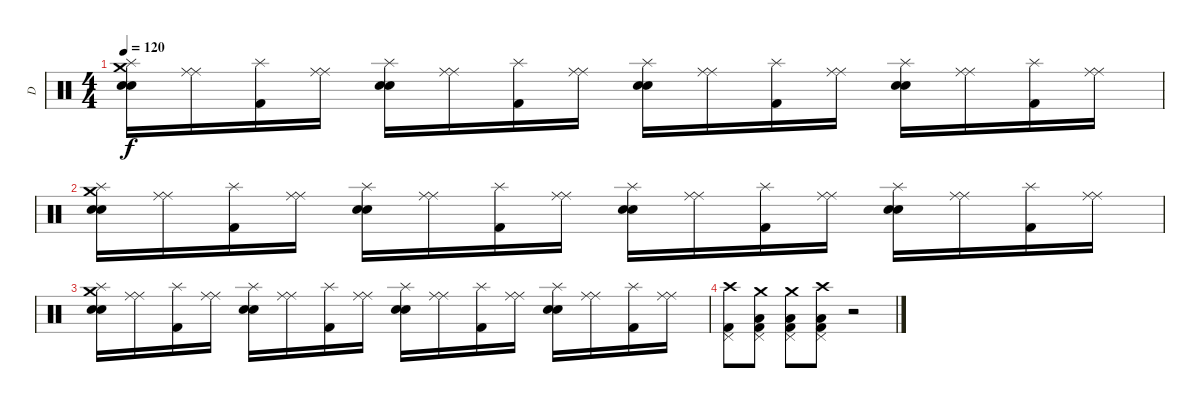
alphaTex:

\track ("D" "D") {instrument percussion}
\staff {score}
\articulation defaults
\ts (4 4)
\tempo 120
\clef neutral
\ks c
("Crash medium (hit)" "Electric Snare (hit)" "Electric Snare (hit)" "Splash (hit)").16{dy f} ("Ride (middle)" "Ride (middle)").16 ("Kick (hit) 2" "Splash (hit)").16 ("Ride (middle)" "Ride (middle)").16 ("Electric Snare (hit)" "Electric Snare (hit)" "Splash (hit)").16 ("Ride (middle)" "Ride (middle)").16 ("Kick (hit) 2" "Splash (hit)").16 ("Ride (middle)" "Ride (middle)").16 ("Electric Snare (hit)" "Electric Snare (hit)" "Splash (hit)").16 ("Ride (middle)" "Ride (middle)").16 ("Kick (hit) 2" "Splash (hit)").16 ("Ride (middle)" "Ride (middle)").16 ("Electric Snare (hit)" "Electric Snare (hit)" "Splash (hit)").16 ("Ride (middle)" "Ride (middle)").16 ("Kick (hit) 2" "Splash (hit)").16 ("Ride (middle)" "Ride (middle)").16 |
("Crash medium (hit)" "Electric Snare (hit)" "Electric Snare (hit)" "Splash (hit)").16 ("Ride (middle)" "Ride (middle)").16 ("Kick (hit) 2" "Splash (hit)").16 ("Ride (middle)" "Ride (middle)").16 ("Electric Snare (hit)" "Electric Snare (hit)" "Splash (hit)").16 ("Ride (middle)" "Ride (middle)").16 ("Kick (hit) 2" "Splash (hit)").16 ("Ride (middle)" "Ride (middle)").16 ("Electric Snare (hit)" "Electric Snare (hit)" "Splash (hit)").16 ("Ride (middle)" "Ride (middle)").16 ("Kick (hit) 2" "Splash (hit)").16 ("Ride (middle)" "Ride (middle)").16 ("Electric Snare (hit)" "Electric Snare (hit)" "Splash (hit)").16 ("Ride (middle)" "Ride (middle)").16 ("Kick (hit) 2" "Splash (hit)").16 ("Ride (middle)" "Ride (middle)").16 |
("Crash medium (hit)" "Electric Snare (hit)" "Electric Snare (hit)" "Splash (hit)").16 ("Ride (middle)" "Ride (middle)").16 ("Kick (hit) 2" "Splash (hit)").16 ("Ride (middle)" "Ride (middle)").16 ("Electric Snare (hit)" "Electric Snare (hit)" "Splash (hit)").16 ("Ride (middle)" "Ride (middle)").16 ("Kick (hit) 2" "Splash (hit)").16 ("Ride (middle)" "Ride (middle)").16 ("Electric Snare (hit)" "Electric Snare (hit)" "Splash (hit)").16 ("Ride (middle)" "Ride (middle)").16 ("Kick (hit) 2" "Splash (hit)").16 ("Ride (middle)" "Ride (middle)").16 ("Electric Snare (hit)" "Electric Snare (hit)" "Splash (hit)").16 ("Ride (middle)" "Ride (middle)").16 ("Kick (hit) 2" "Splash (hit)").16 ("Ride (middle)" "Ride (middle)").16 |
("Crash high (hit)" "Kick (hit) 2" "Pedal Hi-Hat (hit)").8 ("Crash medium (hit)" "Low Tom (hit)" "Kick (hit) 2" "Pedal Hi-Hat (hit)").8 ("Crash medium (hit)" "Low Tom (hit)" "Kick (hit) 2" "Pedal Hi-Hat (hit)").8 ("Crash high (hit)" "Low Tom (hit)" "Kick (hit) 2" "Pedal Hi-Hat (hit)").8 r.2
